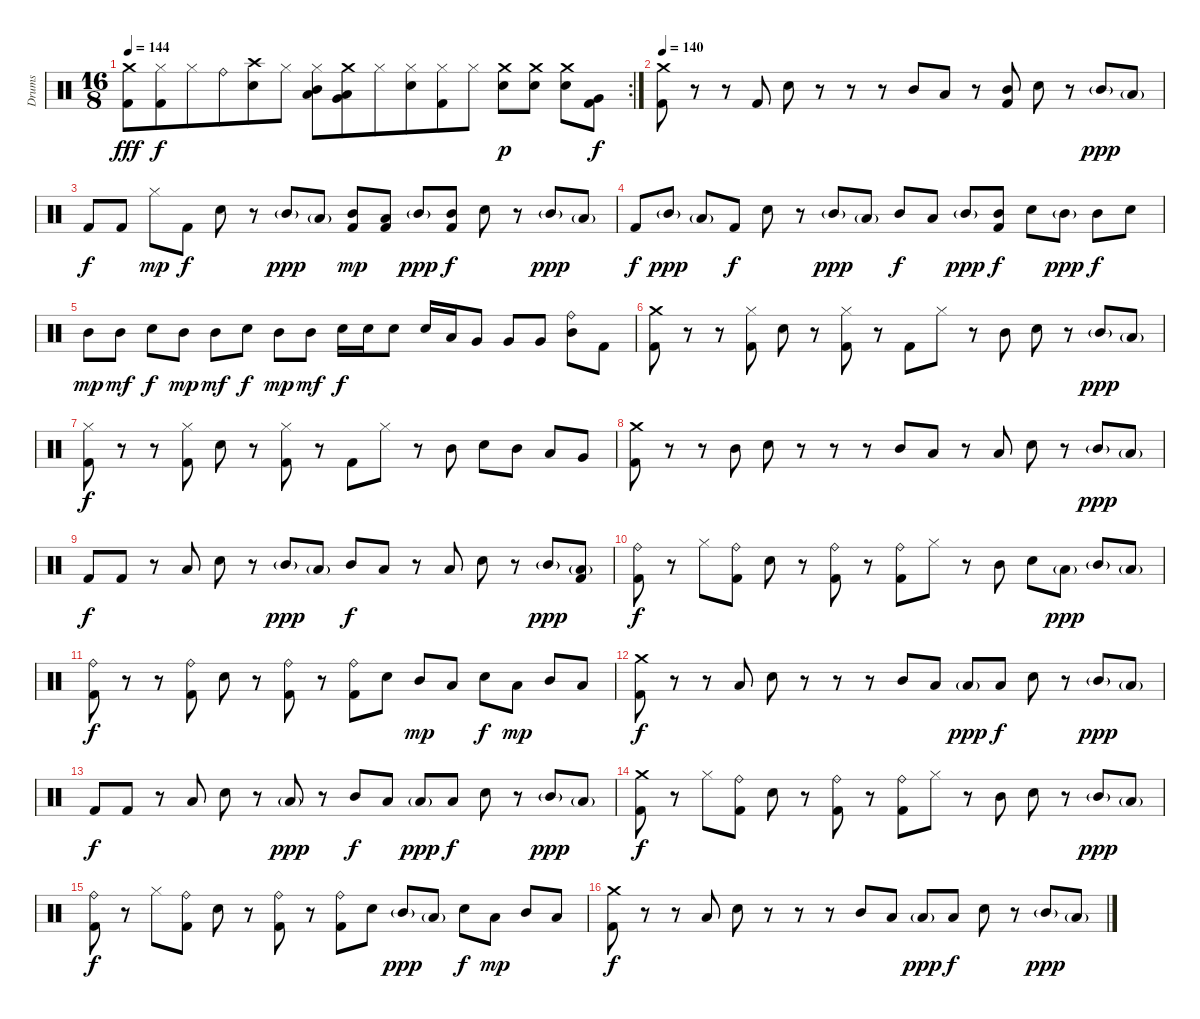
\track ("Drums" "Drums") {instrument percussion}
\staff {score}
\articulation defaults
\rc 2
\ts (16 8)
\tempo 144
\clef neutral
\ks c
("Crash medium (hit)" "Kick (hit) 2").8{dy fff beam merge} ("Hi-Hat (closed)" "Kick (hit) 2").8{dy f beam merge} "Hi-Hat (closed)".8 "Ride (bell)".8{beam merge} ("Crash high (hit)" "Electric Snare (hit)").8{beam merge} "Hi-Hat (closed)".8 ("Hi-Hat (closed)" "Mid Tom (hit)" "Low Tom (hit)").8{beam merge} ("Crash medium (hit)" "Very Low Tom (hit)" "Low Floor Tom (hit)").8{beam merge} "Hi-Hat (closed)".8 ("Hi-Hat (closed)" "Electric Snare (hit)").8{beam merge} ("Hi-Hat (closed)" "Kick (hit) 2").8{beam merge} "Hi-Hat (closed)".8 ("Crash medium (hit)" "Electric Snare (hit)").8{dy p beam merge} ("Crash medium (hit)" "Electric Snare (hit)").8 ("Crash medium (hit)" "Electric Snare (hit)").8{beam merge} ("Very Low Tom (hit)" "Kick (hit) 2").8{dy f} |
\tempo 140
("Crash medium (hit)" "Kick (hit) 2").8 r.8 r.8 "Kick (hit) 2".8 "Electric Snare (hit)".8 r.8 r.8 r.8 "Mid Tom (hit)".8 "Low Tom (hit)".8 r.8 ("Mid Tom (hit)" "Kick (hit) 2").8 "Electric Snare (hit)".8 r.8 "Mid Tom (hit)"{g}.8{dy ppp} "Low Tom (hit)"{g}.8 |
"Kick (hit) 2".8{dy f} "Kick (hit) 2".8 "Hi-Hat (closed)".8{dy mp} "Kick (hit) 2".8{dy f} "Electric Snare (hit)".8 r.8 "Mid Tom (hit)"{g}.8{dy ppp} "Low Tom (hit)"{g}.8 ("Mid Tom (hit)" "Kick (hit) 2").8{dy mp} ("Low Tom (hit)" "Kick (hit) 2").8 "Mid Tom (hit)"{g}.8{dy ppp} ("Mid Tom (hit)" "Kick (hit) 2").8{dy f} "Electric Snare (hit)".8 r.8 "Mid Tom (hit)"{g}.8{dy ppp} "Low Tom (hit)"{g}.8 |
"Kick (hit) 2".8{dy f} "Mid Tom (hit)"{g}.8{dy ppp} "Low Tom (hit)"{g}.8 "Kick (hit) 2".8{dy f} "Electric Snare (hit)".8 r.8 "Mid Tom (hit)"{g}.8{dy ppp} "Low Tom (hit)"{g}.8 "Mid Tom (hit)".8{dy f} "Low Tom (hit)".8 "Mid Tom (hit)"{g}.8{dy ppp} ("Mid Tom (hit)" "Kick (hit) 2").8{dy f} "Electric Snare (hit)".8 "Mid Tom (hit)"{g}.8{dy ppp} "Mid Tom (hit)".8{dy f} "Electric Snare (hit)".8 |
"Mid Tom (hit)".8{dy mp} "Mid Tom (hit)".8{dy mf} "Electric Snare (hit)".8{dy f} "Mid Tom (hit)".8{dy mp} "Mid Tom (hit)".8{dy mf} "Electric Snare (hit)".8{dy f} "Mid Tom (hit)".8{dy mp} "Mid Tom (hit)".8{dy mf} "Electric Snare (hit)".16{dy f} "Electric Snare (hit)".16 "Electric Snare (hit)".8 "Electric Snare (hit)".16 "Low Tom (hit)".16 "Very Low Tom (hit)".8 "Very Low Tom (hit)".8 "Very Low Tom (hit)".8 ("Ride (bell)" "Mid Tom (hit)").8 "Kick (hit) 2".8 |
("Crash medium (hit)" "Kick (hit) 2").8 r.8 r.8 ("Hi-Hat (closed)" "Kick (hit) 2").8 "Electric Snare (hit)".8 r.8 ("Hi-Hat (closed)" "Kick (hit) 2").8 r.8 "Kick (hit) 2".8 "Hi-Hat (closed)".8 r.8 "Mid Tom (hit)".8 "Electric Snare (hit)".8 r.8 "Mid Tom (hit)"{g}.8{dy ppp} "Low Tom (hit)"{g}.8 |
("Hi-Hat (closed)" "Kick (hit) 2").8{dy f} r.8 r.8 ("Hi-Hat (closed)" "Kick (hit) 2").8 "Electric Snare (hit)".8 r.8 ("Hi-Hat (closed)" "Kick (hit) 2").8 r.8 "Kick (hit) 2".8 "Hi-Hat (closed)".8 r.8 "Mid Tom (hit)".8 "Electric Snare (hit)".8 "Mid Tom (hit)".8 "Low Tom (hit)".8 "Very Low Tom (hit)".8 |
("Crash medium (hit)" "Kick (hit) 2").8 r.8 r.8 "Mid Tom (hit)".8 "Electric Snare (hit)".8 r.8 r.8 r.8 "Mid Tom (hit)".8 "Low Tom (hit)".8 r.8 "Low Tom (hit)".8 "Electric Snare (hit)".8 r.8 "Mid Tom (hit)"{g}.8{dy ppp} "Low Tom (hit)"{g}.8 |
"Kick (hit) 2".8{dy f} "Kick (hit) 2".8 r.8 "Low Tom (hit)".8 "Electric Snare (hit)".8 r.8 "Mid Tom (hit)"{g}.8{dy ppp} "Low Tom (hit)"{g}.8 "Mid Tom (hit)".8{dy f} "Low Tom (hit)".8 r.8 "Low Tom (hit)".8 "Electric Snare (hit)".8 r.8 "Mid Tom (hit)"{g}.8{dy ppp} ("Low Tom (hit)"{g} "Kick (hit) 2").8 |
("Ride (bell)" "Kick (hit) 2").8{dy f} r.8 "Hi-Hat (closed)".8 ("Ride (bell)" "Kick (hit) 2").8 "Electric Snare (hit)".8 r.8 ("Ride (bell)" "Kick (hit) 2").8 r.8 ("Ride (bell)" "Kick (hit) 2").8 "Hi-Hat (closed)".8 r.8 "Mid Tom (hit)".8 "Electric Snare (hit)".8 "Low Tom (hit)"{g}.8{dy ppp} "Mid Tom (hit)"{g}.8 "Low Tom (hit)"{g}.8 |
("Ride (bell)" "Kick (hit) 2").8{dy f} r.8 r.8 ("Ride (bell)" "Kick (hit) 2").8 "Electric Snare (hit)".8 r.8 ("Ride (bell)" "Kick (hit) 2").8 r.8 ("Ride (bell)" "Kick (hit) 2").8 "Electric Snare (hit)".8 "Mid Tom (hit)".8{dy mp} "Low Tom (hit)".8 "Electric Snare (hit)".8{dy f} "Low Tom (hit)".8{dy mp} "Mid Tom (hit)".8 "Low Tom (hit)".8 |
("Crash medium (hit)" "Kick (hit) 2").8{dy f} r.8 r.8 "Low Tom (hit)".8 "Electric Snare (hit)".8 r.8 r.8 r.8 "Mid Tom (hit)".8 "Low Tom (hit)".8 "Low Tom (hit)"{g}.8{dy ppp} "Low Tom (hit)".8{dy f} "Electric Snare (hit)".8 r.8 "Mid Tom (hit)"{g}.8{dy ppp} "Low Tom (hit)"{g}.8 |
"Kick (hit) 2".8{dy f} "Kick (hit) 2".8 r.8 "Low Tom (hit)".8 "Electric Snare (hit)".8 r.8 "Low Tom (hit)"{g}.8{dy ppp} r.8 "Mid Tom (hit)".8{dy f} "Low Tom (hit)".8 "Low Tom (hit)"{g}.8{dy ppp} "Low Tom (hit)".8{dy f} "Electric Snare (hit)".8 r.8 "Mid Tom (hit)"{g}.8{dy ppp} "Low Tom (hit)"{g}.8 |
("Crash medium (hit)" "Kick (hit) 2").8{dy f} r.8 "Hi-Hat (closed)".8 ("Ride (bell)" "Kick (hit) 2").8 "Electric Snare (hit)".8 r.8 ("Ride (bell)" "Kick (hit) 2").8 r.8 ("Ride (bell)" "Kick (hit) 2").8 "Hi-Hat (closed)".8 r.8 "Mid Tom (hit)".8 "Electric Snare (hit)".8 r.8 "Mid Tom (hit)"{g}.8{dy ppp} "Low Tom (hit)"{g}.8 |
("Ride (bell)" "Kick (hit) 2").8{dy f} r.8 "Hi-Hat (closed)".8 ("Ride (bell)" "Kick (hit) 2").8 "Electric Snare (hit)".8 r.8 ("Ride (bell)" "Kick (hit) 2").8 r.8 ("Ride (bell)" "Kick (hit) 2").8 "Electric Snare (hit)".8 "Mid Tom (hit)"{g}.8{dy ppp} "Low Tom (hit)"{g}.8 "Electric Snare (hit)".8{dy f} "Low Tom (hit)".8{dy mp} "Mid Tom (hit)".8 "Low Tom (hit)".8 |
("Crash medium (hit)" "Kick (hit) 2").8{dy f} r.8 r.8 "Low Tom (hit)".8 "Electric Snare (hit)".8 r.8 r.8 r.8 "Mid Tom (hit)".8 "Low Tom (hit)".8 "Low Tom (hit)"{g}.8{dy ppp} "Low Tom (hit)".8{dy f} "Electric Snare (hit)".8 r.8 "Mid Tom (hit)"{g}.8{dy ppp} "Low Tom (hit)"{g}.8
